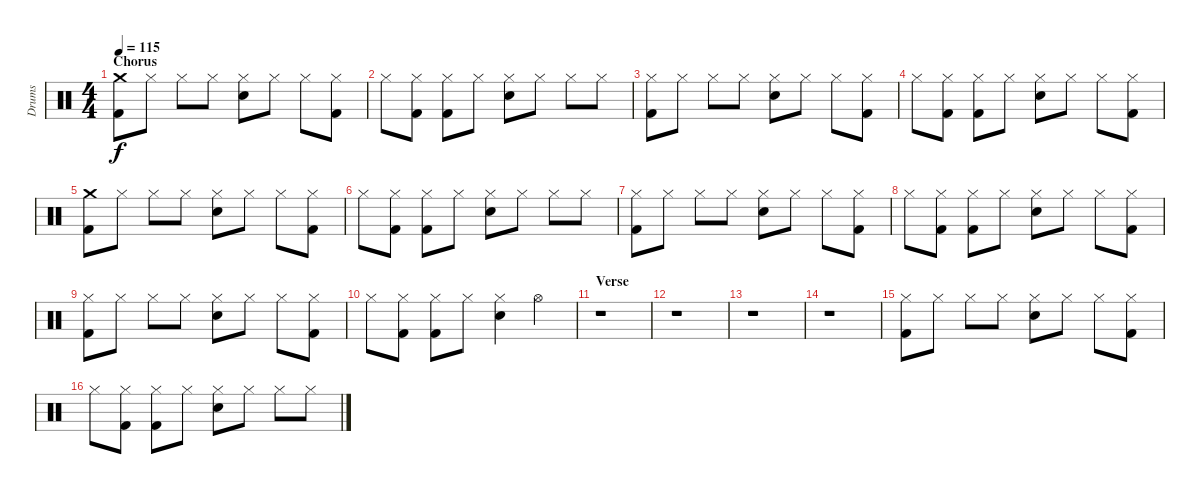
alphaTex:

\track ("Drums" "Drums") {instrument percussion}
\staff {score}
\articulation defaults
\ts (4 4)
\section ("" "Chorus")
\tempo 115
\clef neutral
\ks c
("Crash medium (hit)" "Kick (hit) 2").8{dy f} "Hi-Hat (closed)".8 "Hi-Hat (closed)".8 "Hi-Hat (closed)".8 ("Hi-Hat (closed)" "Snare (hit) 2").8 "Hi-Hat (closed)".8 "Hi-Hat (closed)".8 ("Hi-Hat (closed)" "Kick (hit) 2").8 |
"Hi-Hat (closed)".8 ("Hi-Hat (closed)" "Kick (hit) 2").8 ("Hi-Hat (closed)" "Kick (hit) 2").8 "Hi-Hat (closed)".8 ("Hi-Hat (closed)" "Snare (hit) 2").8 "Hi-Hat (closed)".8 "Hi-Hat (closed)".8 "Hi-Hat (closed)".8 |
("Hi-Hat (closed)" "Kick (hit) 2").8 "Hi-Hat (closed)".8 "Hi-Hat (closed)".8 "Hi-Hat (closed)".8 ("Hi-Hat (closed)" "Snare (hit) 2").8 "Hi-Hat (closed)".8 "Hi-Hat (closed)".8 ("Hi-Hat (closed)" "Kick (hit) 2").8 |
"Hi-Hat (closed)".8 ("Hi-Hat (closed)" "Kick (hit) 2").8 ("Hi-Hat (closed)" "Kick (hit) 2").8 "Hi-Hat (closed)".8 ("Hi-Hat (closed)" "Snare (hit) 2").8 "Hi-Hat (closed)".8 "Hi-Hat (closed)".8 ("Hi-Hat (closed)" "Kick (hit) 2").8 |
("Crash medium (hit)" "Kick (hit) 2").8 "Hi-Hat (closed)".8 "Hi-Hat (closed)".8 "Hi-Hat (closed)".8 ("Hi-Hat (closed)" "Snare (hit) 2").8 "Hi-Hat (closed)".8 "Hi-Hat (closed)".8 ("Hi-Hat (closed)" "Kick (hit) 2").8 |
"Hi-Hat (closed)".8 ("Hi-Hat (closed)" "Kick (hit) 2").8 ("Hi-Hat (closed)" "Kick (hit) 2").8 "Hi-Hat (closed)".8 ("Hi-Hat (closed)" "Snare (hit) 2").8 "Hi-Hat (closed)".8 "Hi-Hat (closed)".8 "Hi-Hat (closed)".8 |
("Hi-Hat (closed)" "Kick (hit) 2").8 "Hi-Hat (closed)".8 "Hi-Hat (closed)".8 "Hi-Hat (closed)".8 ("Hi-Hat (closed)" "Snare (hit) 2").8 "Hi-Hat (closed)".8 "Hi-Hat (closed)".8 ("Hi-Hat (closed)" "Kick (hit) 2").8 |
"Hi-Hat (closed)".8 ("Hi-Hat (closed)" "Kick (hit) 2").8 ("Hi-Hat (closed)" "Kick (hit) 2").8 "Hi-Hat (closed)".8 ("Hi-Hat (closed)" "Snare (hit) 2").8 "Hi-Hat (closed)".8 "Hi-Hat (closed)".8 ("Hi-Hat (closed)" "Kick (hit) 2").8 |
("Hi-Hat (closed)" "Kick (hit) 2").8 "Hi-Hat (closed)".8 "Hi-Hat (closed)".8 "Hi-Hat (closed)".8 ("Hi-Hat (closed)" "Snare (hit) 2").8 "Hi-Hat (closed)".8 "Hi-Hat (closed)".8 ("Hi-Hat (closed)" "Kick (hit) 2").8 |
"Hi-Hat (closed)".8 ("Hi-Hat (closed)" "Kick (hit) 2").8 ("Hi-Hat (closed)" "Kick (hit) 2").8 "Hi-Hat (closed)".8 ("Hi-Hat (closed)" "Snare (hit) 2").4 "Hi-Hat (open)".4 |
\section ("" "Verse")
r.1 |
r.1 |
r.1 |
r.1 |
("Hi-Hat (closed)" "Kick (hit) 2").8 "Hi-Hat (closed)".8 "Hi-Hat (closed)".8 "Hi-Hat (closed)".8 ("Hi-Hat (closed)" "Snare (hit) 2").8 "Hi-Hat (closed)".8 "Hi-Hat (closed)".8 ("Hi-Hat (closed)" "Kick (hit) 2").8 |
"Hi-Hat (closed)".8 ("Hi-Hat (closed)" "Kick (hit) 2").8 ("Hi-Hat (closed)" "Kick (hit) 2").8 "Hi-Hat (closed)".8 ("Hi-Hat (closed)" "Snare (hit) 2").8 "Hi-Hat (closed)".8 "Hi-Hat (closed)".8 "Hi-Hat (closed)".8
